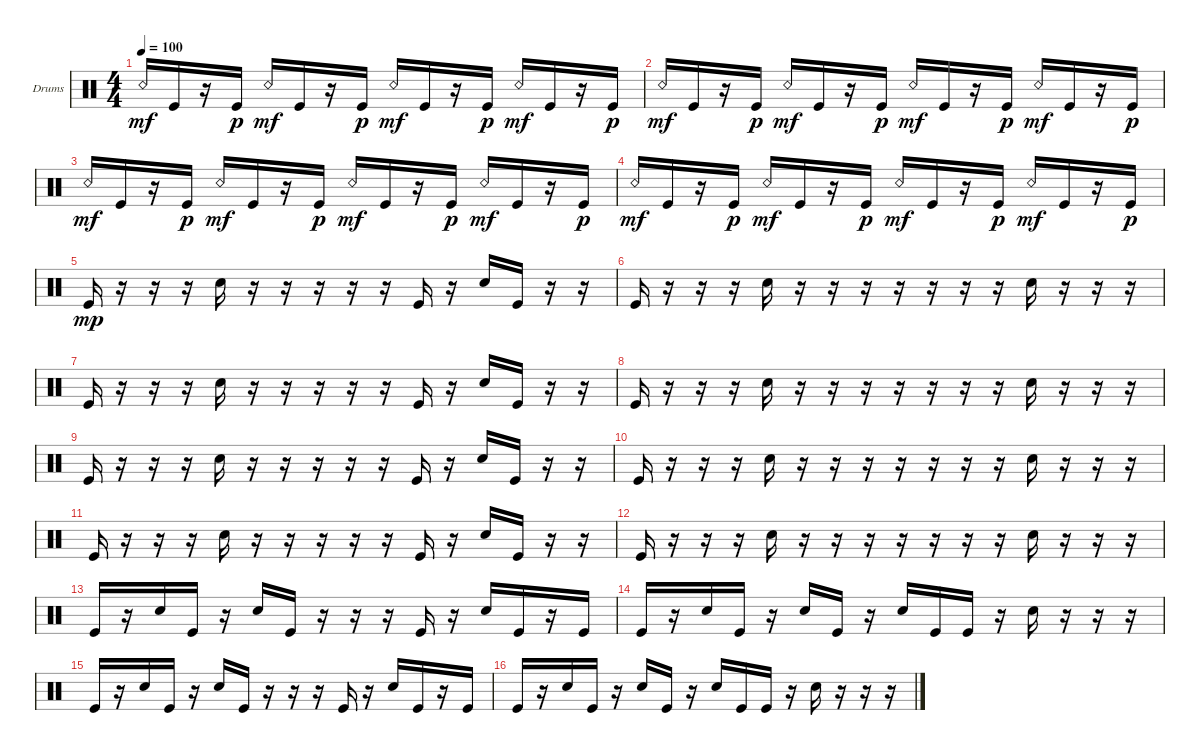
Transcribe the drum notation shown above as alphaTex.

\defaultSystemsLayout 4
\bracketExtendMode groupsimilarinstruments
\firstSystemTrackNameOrientation horizontal
\otherSystemsTrackNameOrientation horizontal
\track ("Drumkit" "Drums") {instrument percussion}
\staff {score}
\articulation defaults
\ts (4 4)
\tempo 100
\clef neutral
\ks c "Snare (rim shot)".16{dy mf} "Kick (hit)".16
r.16 "Kick (hit)".16{dy p} "Snare (rim shot)".16{dy mf} "Kick (hit)".16 r.16 "Kick (hit)".16{dy p} "Snare (rim shot)".16{dy mf} "Kick (hit)".16 r.16 "Kick (hit)".16{dy p} "Snare (rim shot)".16{dy mf} "Kick (hit)".16 r.16 "Kick (hit)".16{dy p} |
"Snare (rim shot)".16{dy mf} "Kick (hit)".16 r.16 "Kick (hit)".16{dy p} "Snare (rim shot)".16{dy mf} "Kick (hit)".16 r.16 "Kick (hit)".16{dy p} "Snare (rim shot)".16{dy mf} "Kick (hit)".16 r.16 "Kick (hit)".16{dy p} "Snare (rim shot)".16{dy mf} "Kick (hit)".16 r.16 "Kick (hit)".16{dy p} |
"Snare (rim shot)".16{dy mf} "Kick (hit)".16 r.16 "Kick (hit)".16{dy p} "Snare (rim shot)".16{dy mf} "Kick (hit)".16 r.16 "Kick (hit)".16{dy p} "Snare (rim shot)".16{dy mf} "Kick (hit)".16 r.16 "Kick (hit)".16{dy p} "Snare (rim shot)".16{dy mf} "Kick (hit)".16 r.16 "Kick (hit)".16{dy p} |
"Snare (rim shot)".16{dy mf} "Kick (hit)".16 r.16 "Kick (hit)".16{dy p} "Snare (rim shot)".16{dy mf} "Kick (hit)".16 r.16 "Kick (hit)".16{dy p} "Snare (rim shot)".16{dy mf} "Kick (hit)".16 r.16 "Kick (hit)".16{dy p} "Snare (rim shot)".16{dy mf} "Kick (hit)".16 r.16 "Kick (hit)".16{dy p} |
"Kick (hit)".16{dy mp} r.16 r.16 r.16 "Snare (hit) 2".16 r.16 r.16 r.16 r.16 r.16 "Kick (hit)".16 r.16 "Snare (hit) 2".16 "Kick (hit)".16 r.16 r.16 |
"Kick (hit)".16 r.16 r.16 r.16 "Snare (hit) 2".16 r.16 r.16 r.16 r.16 r.16 r.16 r.16 "Snare (hit) 2".16 r.16 r.16 r.16 |
"Kick (hit)".16 r.16 r.16 r.16 "Snare (hit) 2".16 r.16 r.16 r.16 r.16 r.16 "Kick (hit)".16 r.16 "Snare (hit) 2".16 "Kick (hit)".16 r.16 r.16 |
"Kick (hit)".16 r.16 r.16 r.16 "Snare (hit) 2".16 r.16 r.16 r.16 r.16 r.16 r.16 r.16 "Snare (hit) 2".16 r.16 r.16 r.16 |
"Kick (hit)".16 r.16 r.16 r.16 "Snare (hit) 2".16 r.16 r.16 r.16 r.16 r.16 "Kick (hit)".16 r.16 "Snare (hit) 2".16 "Kick (hit)".16 r.16 r.16 |
"Kick (hit)".16 r.16 r.16 r.16 "Snare (hit) 2".16 r.16 r.16 r.16 r.16 r.16 r.16 r.16 "Snare (hit) 2".16 r.16 r.16 r.16 |
"Kick (hit)".16 r.16 r.16 r.16 "Snare (hit) 2".16 r.16 r.16 r.16 r.16 r.16 "Kick (hit)".16 r.16 "Snare (hit) 2".16 "Kick (hit)".16 r.16 r.16 |
"Kick (hit)".16 r.16 r.16 r.16 "Snare (hit) 2".16 r.16 r.16 r.16 r.16 r.16 r.16 r.16 "Snare (hit) 2".16 r.16 r.16 r.16 |
"Kick (hit)".16 r.16 "Snare (hit) 2".16 "Kick (hit)".16 r.16 "Snare (hit) 2".16 "Kick (hit)".16 r.16 r.16 r.16 "Kick (hit)".16 r.16 "Snare (hit) 2".16 "Kick (hit)".16 r.16 "Kick (hit)".16 |
"Kick (hit)".16 r.16 "Snare (hit) 2".16 "Kick (hit)".16 r.16 "Snare (hit) 2".16 "Kick (hit)".16 r.16 "Snare (hit) 2".16 "Kick (hit)".16 "Kick (hit)".16 r.16 "Snare (hit) 2".16 r.16 r.16 r.16 |
"Kick (hit)".16 r.16 "Snare (hit) 2".16 "Kick (hit)".16 r.16 "Snare (hit) 2".16 "Kick (hit)".16 r.16 r.16 r.16 "Kick (hit)".16 r.16 "Snare (hit) 2".16 "Kick (hit)".16 r.16 "Kick (hit)".16 |
"Kick (hit)".16 r.16 "Snare (hit) 2".16 "Kick (hit)".16 r.16 "Snare (hit) 2".16 "Kick (hit)".16 r.16 "Snare (hit) 2".16 "Kick (hit)".16 "Kick (hit)".16 r.16 "Snare (hit) 2".16 r.16 r.16 r.16
